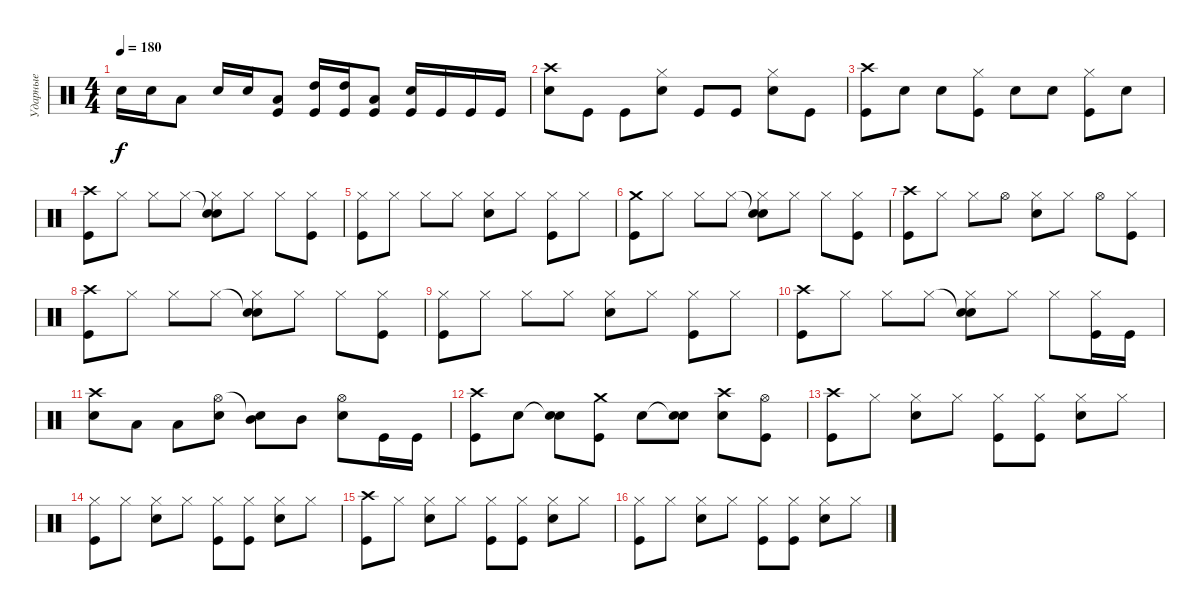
\track ("Ударные" "Ударные") {instrument percussion}
\staff {score}
\articulation defaults
\ts (4 4)
\tempo 180
\clef neutral
\ks c "Electric Snare (hit)".16{dy f} "Electric Snare (hit)".16 "Low Tom (hit)".8 "Electric Snare (hit)".16 "Electric Snare (hit)".16
("Low Tom (hit)" "Kick (hit)").8 ("High Tom (hit)" "Kick (hit)").16 ("High Tom (hit)" "Kick (hit)").16 ("Low Tom (hit)" "Kick (hit)").8 ("Electric Snare (hit)" "Kick (hit)").16 "Kick (hit)".16 "Kick (hit)".16 "Kick (hit)".16 |
("Crash high (hit)" "Electric Snare (hit)").8 "Kick (hit)".8 "Kick (hit)".8 ("Hi-Hat (closed)" "Electric Snare (hit)").8 "Kick (hit)".8 "Kick (hit)".8 ("Hi-Hat (closed)" "Electric Snare (hit)").8 "Kick (hit)".8 |
("Crash high (hit)" "Kick (hit)").8 "Electric Snare (hit)".8 "Electric Snare (hit)".8 ("Hi-Hat (closed)" "Kick (hit)").8 "Electric Snare (hit)".8 "Electric Snare (hit)".8 ("Hi-Hat (closed)" "Kick (hit)").8 "Electric Snare (hit)".8 |
("Crash high (hit)" "Kick (hit)").8 "Hi-Hat (closed)".8 "Hi-Hat (closed)".8 "Hi-Hat (closed)".8 ("Snare (hit)"{t} "Hi-Hat (closed)" "Electric Snare (hit)").8 "Hi-Hat (closed)".8 "Hi-Hat (closed)".8 ("Hi-Hat (closed)" "Kick (hit)").8 |
("Hi-Hat (closed)" "Kick (hit)").8 "Hi-Hat (closed)".8 "Hi-Hat (closed)".8 "Hi-Hat (closed)".8 ("Hi-Hat (closed)" "Electric Snare (hit)").8 "Hi-Hat (closed)".8 ("Hi-Hat (closed)" "Kick (hit)").8 "Hi-Hat (closed)".8 |
("Crash medium (hit)" "Kick (hit)").8 "Hi-Hat (closed)".8 "Hi-Hat (closed)".8 "Hi-Hat (closed)".8 ("Snare (hit)"{t} "Hi-Hat (closed)" "Electric Snare (hit)").8 "Hi-Hat (closed)".8 "Hi-Hat (closed)".8 ("Hi-Hat (closed)" "Kick (hit)").8 |
("Crash high (hit)" "Kick (hit)").8 "Hi-Hat (closed)".8 "Hi-Hat (closed)".8 "Hi-Hat (open)".8 ("Hi-Hat (closed)" "Electric Snare (hit)").8 "Hi-Hat (closed)".8 "Hi-Hat (open)".8 ("Hi-Hat (closed)" "Kick (hit)").8 |
("Crash high (hit)" "Kick (hit)").8 "Hi-Hat (closed)".8 "Hi-Hat (closed)".8 "Hi-Hat (closed)".8 ("Snare (hit)"{t} "Hi-Hat (closed)" "Electric Snare (hit)").8 "Hi-Hat (closed)".8 "Hi-Hat (closed)".8 ("Hi-Hat (closed)" "Kick (hit)").8 |
("Hi-Hat (closed)" "Kick (hit)").8 "Hi-Hat (closed)".8 "Hi-Hat (closed)".8 "Hi-Hat (closed)".8 ("Hi-Hat (closed)" "Electric Snare (hit)").8 "Hi-Hat (closed)".8 ("Hi-Hat (closed)" "Kick (hit)").8 "Hi-Hat (closed)".8 |
("Crash high (hit)" "Kick (hit)").8 "Hi-Hat (closed)".8 "Hi-Hat (closed)".8 "Hi-Hat (closed)".8 ("Snare (hit)"{t} "Hi-Hat (closed)" "Electric Snare (hit)").8 "Hi-Hat (closed)".8 "Hi-Hat (closed)".8 ("Hi-Hat (closed)" "Kick (hit)").16 "Kick (hit)".16 |
("Crash high (hit)" "Electric Snare (hit)").8 "Low Tom (hit)".8 "Low Tom (hit)".8 ("Hi-Hat (open)" "Electric Snare (hit)").8 ("Snare (hit)"{t} "Mid Tom (hit)").8 "Mid Tom (hit)".8 ("Hi-Hat (open)" "Electric Snare (hit)").8 "Kick (hit)".16 "Kick (hit)".16 |
("Crash high (hit)" "Kick (hit)").8 "Electric Snare (hit)".8 ("Snare (hit)"{t} "Electric Snare (hit)").8 ("Crash medium (hit)" "Kick (hit)").8 "Electric Snare (hit)".8 ("Snare (hit)"{t} "Electric Snare (hit)").8 ("Crash high (hit)" "Electric Snare (hit)").8 ("Kick (hit)" "Hi-Hat (open)").8 |
("Crash high (hit)" "Kick (hit)").8 "Hi-Hat (closed)".8 ("Hi-Hat (closed)" "Electric Snare (hit)").8 "Hi-Hat (closed)".8 ("Hi-Hat (closed)" "Kick (hit)").8 ("Hi-Hat (closed)" "Kick (hit)").8 ("Hi-Hat (closed)" "Electric Snare (hit)").8 "Hi-Hat (closed)".8 |
("Hi-Hat (closed)" "Kick (hit)").8 "Hi-Hat (closed)".8 ("Hi-Hat (closed)" "Electric Snare (hit)").8 "Hi-Hat (closed)".8 ("Hi-Hat (closed)" "Kick (hit)").8 ("Hi-Hat (closed)" "Kick (hit)").8 ("Hi-Hat (closed)" "Electric Snare (hit)").8 "Hi-Hat (closed)".8 |
("Crash high (hit)" "Kick (hit)").8 "Hi-Hat (closed)".8 ("Hi-Hat (closed)" "Electric Snare (hit)").8 "Hi-Hat (closed)".8 ("Hi-Hat (closed)" "Kick (hit)").8 ("Hi-Hat (closed)" "Kick (hit)").8 ("Hi-Hat (closed)" "Electric Snare (hit)").8 "Hi-Hat (closed)".8 |
("Hi-Hat (closed)" "Kick (hit)").8 "Hi-Hat (closed)".8 ("Hi-Hat (closed)" "Electric Snare (hit)").8 "Hi-Hat (closed)".8 ("Hi-Hat (closed)" "Kick (hit)").8 ("Hi-Hat (closed)" "Kick (hit)").8 ("Hi-Hat (closed)" "Electric Snare (hit)").8 "Hi-Hat (closed)".8
